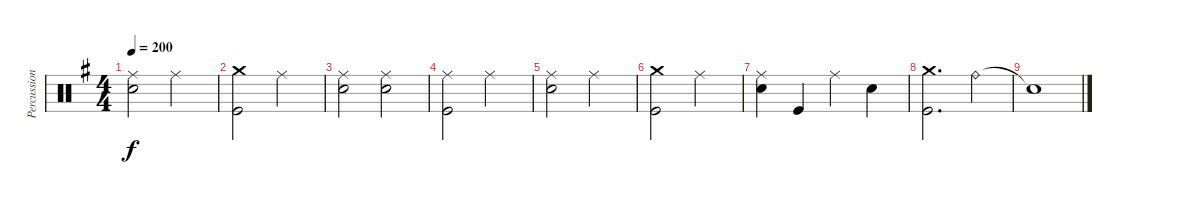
\track ("Percussion" "Percussion") {instrument percussion}
\staff {score}
\articulation defaults
\ts (4 4)
\tempo 200
\clef neutral
\ks g
("Ride (middle)" "Electric Snare (hit)").2{dy f} "Ride (middle)".2 |
("Crash medium (hit)" "Kick (hit)").2 "Ride (middle)".2 |
("Ride (middle)" "Electric Snare (hit)").2 ("Ride (middle)" "Electric Snare (hit)").2 |
("Ride (middle)" "Kick (hit)").2 "Ride (middle)".2 |
("Ride (middle)" "Electric Snare (hit)").2 "Ride (middle)".2 |
("Crash medium (hit)" "Kick (hit)").2 "Ride (middle)".2 |
("Ride (middle)" "Electric Snare (hit)").4 "Kick (hit)".4 "Ride (middle)".4 "Electric Snare (hit)".4 |
("Crash medium (hit)" "Kick (hit)").2{d} "Ride (bell)".4 |
"Snare (hit)"{t}.1
